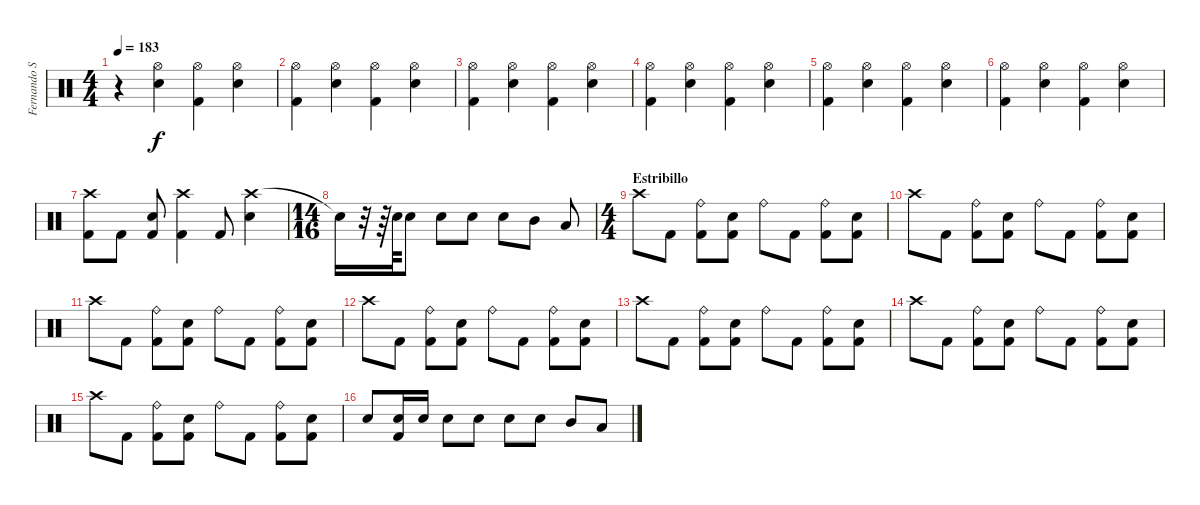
\track ("Fernando Scarcella" "Fernando S") {instrument percussion}
\staff {score}
\articulation defaults
\ts (4 4)
\tempo 183
\clef neutral
\ks c
r.4{dy f} ("Hi-Hat (open)" "Snare (hit) 2").4 ("Hi-Hat (open)" "Kick (hit) 2").4 ("Hi-Hat (open)" "Snare (hit) 2").4 |
("Hi-Hat (open)" "Kick (hit) 2").4 ("Hi-Hat (open)" "Snare (hit) 2").4 ("Hi-Hat (open)" "Kick (hit) 2").4 ("Hi-Hat (open)" "Snare (hit) 2").4 |
("Hi-Hat (open)" "Kick (hit) 2").4 ("Hi-Hat (open)" "Snare (hit) 2").4 ("Hi-Hat (open)" "Kick (hit) 2").4 ("Hi-Hat (open)" "Snare (hit) 2").4 |
("Hi-Hat (open)" "Kick (hit) 2").4 ("Hi-Hat (open)" "Snare (hit) 2").4 ("Hi-Hat (open)" "Kick (hit) 2").4 ("Hi-Hat (open)" "Snare (hit) 2").4 |
("Hi-Hat (open)" "Kick (hit) 2").4 ("Hi-Hat (open)" "Snare (hit) 2").4 ("Hi-Hat (open)" "Kick (hit) 2").4 ("Hi-Hat (open)" "Snare (hit) 2").4 |
("Hi-Hat (open)" "Kick (hit) 2").4 ("Hi-Hat (open)" "Snare (hit) 2").4 ("Hi-Hat (open)" "Kick (hit) 2").4 ("Hi-Hat (open)" "Snare (hit) 2").4 |
("Crash high (hit)" "Kick (hit) 2").8 "Kick (hit) 2".8 ("Kick (hit) 2" "Snare (hit) 2").8 ("Crash high (hit)" "Kick (hit) 2").4 "Kick (hit) 2".8 ("Crash high (hit)" "Snare (hit) 2").4 |
\ts (14 16)
"Snare (hit)"{t}.16 r.32 r.64 "Snare (hit) 2".64 "Snare (hit) 2".8 "Snare (hit) 2".8 "Snare (hit) 2".8 "Snare (hit) 2".8 "Mid Tom (hit)".8 "Low Tom (hit)".8 |
\ts (4 4)
\section ("" "Estribillo")
"Crash high (hit)".8 "Kick (hit) 2".8 ("Kick (hit) 2" "Ride (bell)").8 ("Kick (hit) 2" "Snare (hit) 2").8 "Ride (bell)".8 "Kick (hit) 2".8 ("Kick (hit) 2" "Ride (bell)").8 ("Kick (hit) 2" "Snare (hit) 2").8 |
"Crash high (hit)".8 "Kick (hit) 2".8 ("Kick (hit) 2" "Ride (bell)").8 ("Kick (hit) 2" "Snare (hit) 2").8 "Ride (bell)".8 "Kick (hit) 2".8 ("Kick (hit) 2" "Ride (bell)").8 ("Kick (hit) 2" "Snare (hit) 2").8 |
"Crash high (hit)".8 "Kick (hit) 2".8 ("Kick (hit) 2" "Ride (bell)").8 ("Kick (hit) 2" "Snare (hit) 2").8 "Ride (bell)".8 "Kick (hit) 2".8 ("Kick (hit) 2" "Ride (bell)").8 ("Kick (hit) 2" "Snare (hit) 2").8 |
"Crash high (hit)".8 "Kick (hit) 2".8 ("Kick (hit) 2" "Ride (bell)").8 ("Kick (hit) 2" "Snare (hit) 2").8 "Ride (bell)".8 "Kick (hit) 2".8 ("Kick (hit) 2" "Ride (bell)").8 ("Kick (hit) 2" "Snare (hit) 2").8 |
"Crash high (hit)".8 "Kick (hit) 2".8 ("Kick (hit) 2" "Ride (bell)").8 ("Kick (hit) 2" "Snare (hit) 2").8 "Ride (bell)".8 "Kick (hit) 2".8 ("Kick (hit) 2" "Ride (bell)").8 ("Kick (hit) 2" "Snare (hit) 2").8 |
"Crash high (hit)".8 "Kick (hit) 2".8 ("Kick (hit) 2" "Ride (bell)").8 ("Kick (hit) 2" "Snare (hit) 2").8 "Ride (bell)".8 "Kick (hit) 2".8 ("Kick (hit) 2" "Ride (bell)").8 ("Kick (hit) 2" "Snare (hit) 2").8 |
"Crash high (hit)".8 "Kick (hit) 2".8 ("Kick (hit) 2" "Ride (bell)").8 ("Kick (hit) 2" "Snare (hit) 2").8 "Ride (bell)".8 "Kick (hit) 2".8 ("Kick (hit) 2" "Ride (bell)").8 ("Kick (hit) 2" "Snare (hit) 2").8 |
"Snare (hit) 2".8 ("Snare (hit) 2" "Kick (hit) 2").16 "Snare (hit) 2".16 "Snare (hit) 2".8 "Snare (hit) 2".8 "Snare (hit) 2".8 "Snare (hit) 2".8 "Mid Tom (hit)".8 "Low Tom (hit)".8
